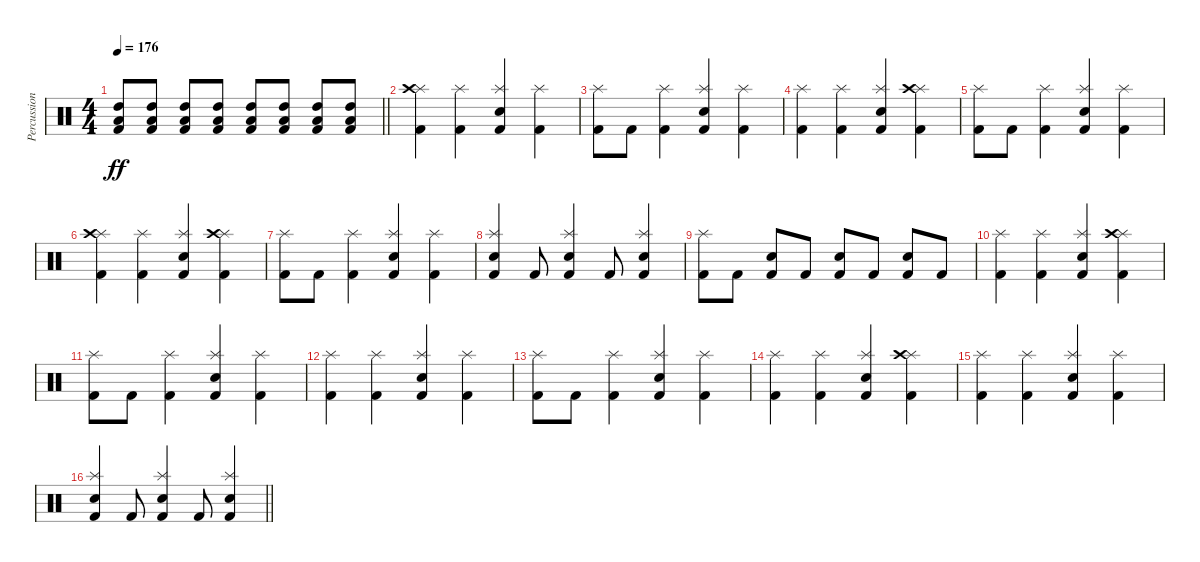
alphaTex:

\track ("Percussion" "Percussion") {instrument percussion}
\staff {score}
\articulation defaults
\ts (4 4)
\tempo 176
\clef neutral
\barLineRight lightlight
\ks c
("Kick (hit) 2" "High Tom (hit)" "Low Tom (hit)").8{dy ff volume 5} ("Kick (hit) 2" "High Tom (hit)" "Low Tom (hit)").8 ("Kick (hit) 2" "High Tom (hit)" "Low Tom (hit)").8{volume 13} ("Kick (hit) 2" "High Tom (hit)" "Low Tom (hit)").8 ("Kick (hit) 2" "High Tom (hit)" "Low Tom (hit)").8{volume 13} ("Kick (hit) 2" "High Tom (hit)" "Low Tom (hit)").8 ("Kick (hit) 2" "High Tom (hit)" "Low Tom (hit)").8{volume 16} ("Kick (hit) 2" "High Tom (hit)" "Low Tom (hit)").8 |
("Kick (hit) 2" "Splash (hit)" "Crash high (hit)").4 ("Kick (hit) 2" "Splash (hit)").4 ("Kick (hit) 2" "Electric Snare (hit)" "Splash (hit)").4 ("Kick (hit) 2" "Splash (hit)").4 |
("Kick (hit) 2" "Splash (hit)").8 "Kick (hit) 2".8 ("Kick (hit) 2" "Splash (hit)").4 ("Kick (hit) 2" "Electric Snare (hit)" "Splash (hit)").4 ("Kick (hit) 2" "Splash (hit)").4 |
("Kick (hit) 2" "Splash (hit)").4 ("Kick (hit) 2" "Splash (hit)").4 ("Kick (hit) 2" "Electric Snare (hit)" "Splash (hit)").4 ("Kick (hit) 2" "Splash (hit)" "Crash high (hit)").4 |
("Kick (hit) 2" "Splash (hit)").8 "Kick (hit) 2".8 ("Kick (hit) 2" "Splash (hit)").4 ("Kick (hit) 2" "Electric Snare (hit)" "Splash (hit)").4 ("Kick (hit) 2" "Splash (hit)").4 |
("Kick (hit) 2" "Splash (hit)" "Crash high (hit)").4 ("Kick (hit) 2" "Splash (hit)").4 ("Kick (hit) 2" "Electric Snare (hit)" "Splash (hit)").4 ("Kick (hit) 2" "Splash (hit)" "Crash high (hit)").4 |
("Kick (hit) 2" "Splash (hit)").8 "Kick (hit) 2".8 ("Kick (hit) 2" "Splash (hit)").4 ("Kick (hit) 2" "Electric Snare (hit)" "Splash (hit)").4 ("Kick (hit) 2" "Splash (hit)").4 |
("Kick (hit) 2" "Electric Snare (hit)" "Splash (hit)").4 "Kick (hit) 2".8 ("Kick (hit) 2" "Electric Snare (hit)" "Splash (hit)").4 "Kick (hit) 2".8 ("Kick (hit) 2" "Electric Snare (hit)" "Splash (hit)").4 |
("Kick (hit) 2" "Splash (hit)").8 "Kick (hit) 2".8 ("Kick (hit) 2" "Electric Snare (hit)").8 "Kick (hit) 2".8 ("Kick (hit) 2" "Electric Snare (hit)").8 "Kick (hit) 2".8 ("Kick (hit) 2" "Electric Snare (hit)").8 "Kick (hit) 2".8 |
("Kick (hit) 2" "Splash (hit)").4 ("Kick (hit) 2" "Splash (hit)").4 ("Kick (hit) 2" "Electric Snare (hit)" "Splash (hit)").4 ("Kick (hit) 2" "Splash (hit)" "Crash high (hit)").4 |
("Kick (hit) 2" "Splash (hit)").8 "Kick (hit) 2".8 ("Kick (hit) 2" "Splash (hit)").4 ("Kick (hit) 2" "Electric Snare (hit)" "Splash (hit)").4 ("Kick (hit) 2" "Splash (hit)").4 |
("Kick (hit) 2" "Splash (hit)").4 ("Kick (hit) 2" "Splash (hit)").4 ("Kick (hit) 2" "Electric Snare (hit)" "Splash (hit)").4 ("Kick (hit) 2" "Splash (hit)").4 |
("Kick (hit) 2" "Splash (hit)").8 "Kick (hit) 2".8 ("Kick (hit) 2" "Splash (hit)").4 ("Kick (hit) 2" "Electric Snare (hit)" "Splash (hit)").4 ("Kick (hit) 2" "Splash (hit)").4 |
("Kick (hit) 2" "Splash (hit)").4 ("Kick (hit) 2" "Splash (hit)").4 ("Kick (hit) 2" "Electric Snare (hit)" "Splash (hit)").4 ("Kick (hit) 2" "Splash (hit)" "Crash high (hit)").4 |
("Kick (hit) 2" "Splash (hit)").4 ("Kick (hit) 2" "Splash (hit)").4 ("Kick (hit) 2" "Electric Snare (hit)" "Splash (hit)").4 ("Kick (hit) 2" "Splash (hit)").4 |
\barLineRight lightlight
("Kick (hit) 2" "Electric Snare (hit)" "Splash (hit)").4 "Kick (hit) 2".8 ("Kick (hit) 2" "Electric Snare (hit)" "Splash (hit)").4 "Kick (hit) 2".8 ("Kick (hit) 2" "Electric Snare (hit)" "Splash (hit)").4
